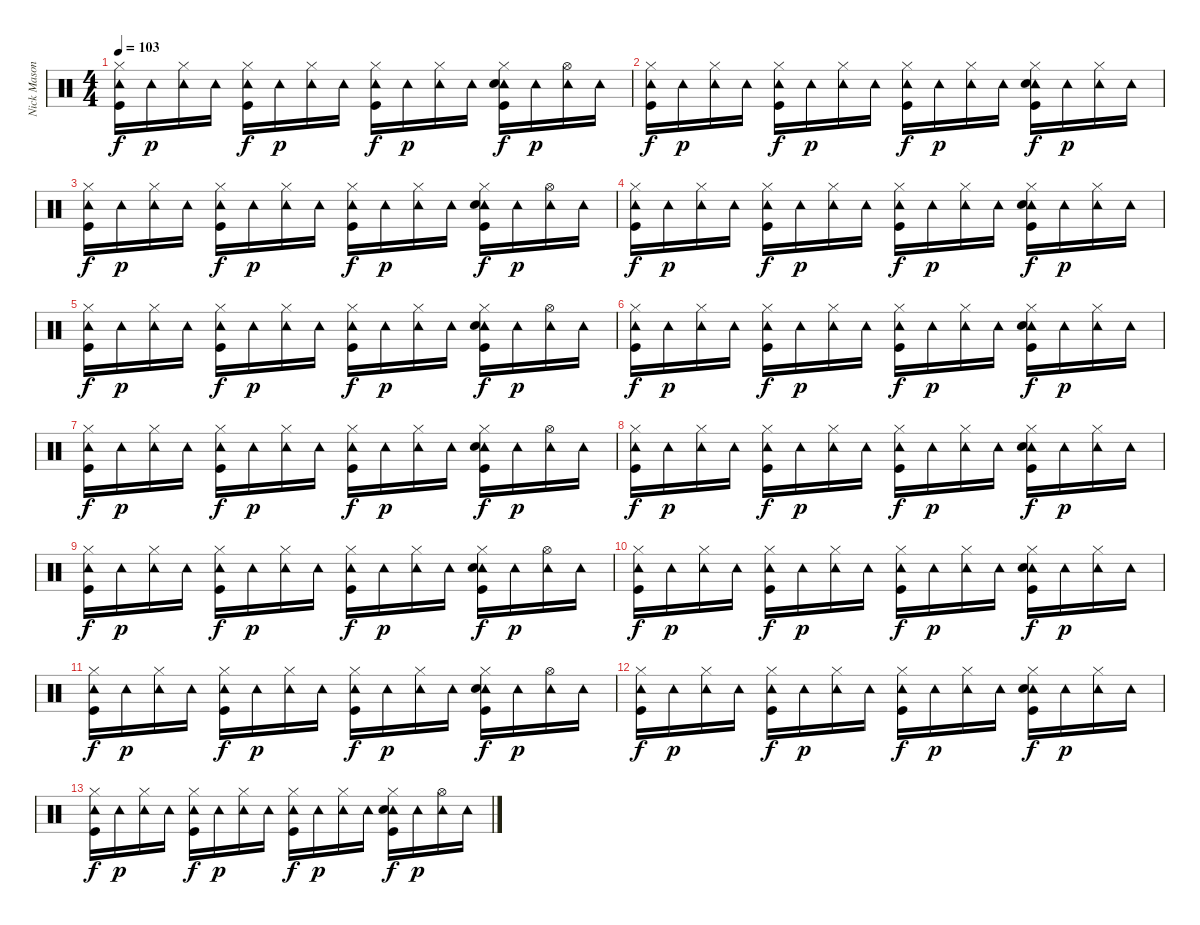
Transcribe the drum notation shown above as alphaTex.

\track ("Nick Mason" "Nick Mason") {instrument percussion}
\staff {score}
\articulation defaults
\ts (4 4)
\tempo 103
\clef neutral
\ks c
("Tambourine (hit)" "Kick (hit)" "Hi-Hat (closed)").16{dy f} "Tambourine (hit)".16{dy p} ("Tambourine (hit)" "Hi-Hat (closed)").16 "Tambourine (hit)".16 ("Tambourine (hit)" "Kick (hit)" "Hi-Hat (closed)").16{dy f} "Tambourine (hit)".16{dy p} ("Tambourine (hit)" "Hi-Hat (closed)").16 "Tambourine (hit)".16 ("Tambourine (hit)" "Kick (hit)" "Hi-Hat (closed)").16{dy f} "Tambourine (hit)".16{dy p} ("Tambourine (hit)" "Hi-Hat (closed)").16 "Tambourine (hit)".16 ("Tambourine (hit)" "Kick (hit)" "Snare (hit) 2" "Hi-Hat (closed)").16{dy f} "Tambourine (hit)".16{dy p} ("Tambourine (hit)" "Hi-Hat (open)").16 "Tambourine (hit)".16 |
("Tambourine (hit)" "Kick (hit)" "Hi-Hat (closed)").16{dy f} "Tambourine (hit)".16{dy p} ("Tambourine (hit)" "Hi-Hat (closed)").16 "Tambourine (hit)".16 ("Tambourine (hit)" "Kick (hit)" "Hi-Hat (closed)").16{dy f} "Tambourine (hit)".16{dy p} ("Tambourine (hit)" "Hi-Hat (closed)").16 "Tambourine (hit)".16 ("Tambourine (hit)" "Kick (hit)" "Hi-Hat (closed)").16{dy f} "Tambourine (hit)".16{dy p} ("Tambourine (hit)" "Hi-Hat (closed)").16 "Tambourine (hit)".16 ("Tambourine (hit)" "Kick (hit)" "Snare (hit) 2" "Hi-Hat (closed)").16{dy f} "Tambourine (hit)".16{dy p} ("Tambourine (hit)" "Hi-Hat (closed)").16 "Tambourine (hit)".16 |
("Tambourine (hit)" "Kick (hit)" "Hi-Hat (closed)").16{dy f} "Tambourine (hit)".16{dy p} ("Tambourine (hit)" "Hi-Hat (closed)").16 "Tambourine (hit)".16 ("Tambourine (hit)" "Kick (hit)" "Hi-Hat (closed)").16{dy f} "Tambourine (hit)".16{dy p} ("Tambourine (hit)" "Hi-Hat (closed)").16 "Tambourine (hit)".16 ("Tambourine (hit)" "Kick (hit)" "Hi-Hat (closed)").16{dy f} "Tambourine (hit)".16{dy p} ("Tambourine (hit)" "Hi-Hat (closed)").16 "Tambourine (hit)".16 ("Tambourine (hit)" "Kick (hit)" "Snare (hit) 2" "Hi-Hat (closed)").16{dy f} "Tambourine (hit)".16{dy p} ("Tambourine (hit)" "Hi-Hat (open)").16 "Tambourine (hit)".16 |
("Tambourine (hit)" "Kick (hit)" "Hi-Hat (closed)").16{dy f} "Tambourine (hit)".16{dy p} ("Tambourine (hit)" "Hi-Hat (closed)").16 "Tambourine (hit)".16 ("Tambourine (hit)" "Kick (hit)" "Hi-Hat (closed)").16{dy f} "Tambourine (hit)".16{dy p} ("Tambourine (hit)" "Hi-Hat (closed)").16 "Tambourine (hit)".16 ("Tambourine (hit)" "Kick (hit)" "Hi-Hat (closed)").16{dy f} "Tambourine (hit)".16{dy p} ("Tambourine (hit)" "Hi-Hat (closed)").16 "Tambourine (hit)".16 ("Tambourine (hit)" "Kick (hit)" "Snare (hit) 2" "Hi-Hat (closed)").16{dy f} "Tambourine (hit)".16{dy p} ("Tambourine (hit)" "Hi-Hat (closed)").16 "Tambourine (hit)".16 |
("Tambourine (hit)" "Kick (hit)" "Hi-Hat (closed)").16{dy f} "Tambourine (hit)".16{dy p} ("Tambourine (hit)" "Hi-Hat (closed)").16 "Tambourine (hit)".16 ("Tambourine (hit)" "Kick (hit)" "Hi-Hat (closed)").16{dy f} "Tambourine (hit)".16{dy p} ("Tambourine (hit)" "Hi-Hat (closed)").16 "Tambourine (hit)".16 ("Tambourine (hit)" "Kick (hit)" "Hi-Hat (closed)").16{dy f} "Tambourine (hit)".16{dy p} ("Tambourine (hit)" "Hi-Hat (closed)").16 "Tambourine (hit)".16 ("Tambourine (hit)" "Kick (hit)" "Snare (hit) 2" "Hi-Hat (closed)").16{dy f} "Tambourine (hit)".16{dy p} ("Tambourine (hit)" "Hi-Hat (open)").16 "Tambourine (hit)".16 |
("Tambourine (hit)" "Kick (hit)" "Hi-Hat (closed)").16{dy f} "Tambourine (hit)".16{dy p} ("Tambourine (hit)" "Hi-Hat (closed)").16 "Tambourine (hit)".16 ("Tambourine (hit)" "Kick (hit)" "Hi-Hat (closed)").16{dy f} "Tambourine (hit)".16{dy p} ("Tambourine (hit)" "Hi-Hat (closed)").16 "Tambourine (hit)".16 ("Tambourine (hit)" "Kick (hit)" "Hi-Hat (closed)").16{dy f} "Tambourine (hit)".16{dy p} ("Tambourine (hit)" "Hi-Hat (closed)").16 "Tambourine (hit)".16 ("Tambourine (hit)" "Kick (hit)" "Snare (hit) 2" "Hi-Hat (closed)").16{dy f} "Tambourine (hit)".16{dy p} ("Tambourine (hit)" "Hi-Hat (closed)").16 "Tambourine (hit)".16 |
("Tambourine (hit)" "Kick (hit)" "Hi-Hat (closed)").16{dy f} "Tambourine (hit)".16{dy p} ("Tambourine (hit)" "Hi-Hat (closed)").16 "Tambourine (hit)".16 ("Tambourine (hit)" "Kick (hit)" "Hi-Hat (closed)").16{dy f} "Tambourine (hit)".16{dy p} ("Tambourine (hit)" "Hi-Hat (closed)").16 "Tambourine (hit)".16 ("Tambourine (hit)" "Kick (hit)" "Hi-Hat (closed)").16{dy f} "Tambourine (hit)".16{dy p} ("Tambourine (hit)" "Hi-Hat (closed)").16 "Tambourine (hit)".16 ("Tambourine (hit)" "Kick (hit)" "Snare (hit) 2" "Hi-Hat (closed)").16{dy f} "Tambourine (hit)".16{dy p} ("Tambourine (hit)" "Hi-Hat (open)").16 "Tambourine (hit)".16 |
("Tambourine (hit)" "Kick (hit)" "Hi-Hat (closed)").16{dy f} "Tambourine (hit)".16{dy p} ("Tambourine (hit)" "Hi-Hat (closed)").16 "Tambourine (hit)".16 ("Tambourine (hit)" "Kick (hit)" "Hi-Hat (closed)").16{dy f} "Tambourine (hit)".16{dy p} ("Tambourine (hit)" "Hi-Hat (closed)").16 "Tambourine (hit)".16 ("Tambourine (hit)" "Kick (hit)" "Hi-Hat (closed)").16{dy f} "Tambourine (hit)".16{dy p} ("Tambourine (hit)" "Hi-Hat (closed)").16 "Tambourine (hit)".16 ("Tambourine (hit)" "Kick (hit)" "Snare (hit) 2" "Hi-Hat (closed)").16{dy f} "Tambourine (hit)".16{dy p} ("Tambourine (hit)" "Hi-Hat (closed)").16 "Tambourine (hit)".16 |
("Tambourine (hit)" "Kick (hit)" "Hi-Hat (closed)").16{dy f} "Tambourine (hit)".16{dy p} ("Tambourine (hit)" "Hi-Hat (closed)").16 "Tambourine (hit)".16 ("Tambourine (hit)" "Kick (hit)" "Hi-Hat (closed)").16{dy f} "Tambourine (hit)".16{dy p} ("Tambourine (hit)" "Hi-Hat (closed)").16 "Tambourine (hit)".16 ("Tambourine (hit)" "Kick (hit)" "Hi-Hat (closed)").16{dy f} "Tambourine (hit)".16{dy p} ("Tambourine (hit)" "Hi-Hat (closed)").16 "Tambourine (hit)".16 ("Tambourine (hit)" "Kick (hit)" "Snare (hit) 2" "Hi-Hat (closed)").16{dy f} "Tambourine (hit)".16{dy p} ("Tambourine (hit)" "Hi-Hat (open)").16 "Tambourine (hit)".16 |
("Tambourine (hit)" "Kick (hit)" "Hi-Hat (closed)").16{dy f} "Tambourine (hit)".16{dy p} ("Tambourine (hit)" "Hi-Hat (closed)").16 "Tambourine (hit)".16 ("Tambourine (hit)" "Kick (hit)" "Hi-Hat (closed)").16{dy f} "Tambourine (hit)".16{dy p} ("Tambourine (hit)" "Hi-Hat (closed)").16 "Tambourine (hit)".16 ("Tambourine (hit)" "Kick (hit)" "Hi-Hat (closed)").16{dy f} "Tambourine (hit)".16{dy p} ("Tambourine (hit)" "Hi-Hat (closed)").16 "Tambourine (hit)".16 ("Tambourine (hit)" "Kick (hit)" "Snare (hit) 2" "Hi-Hat (closed)").16{dy f} "Tambourine (hit)".16{dy p} ("Tambourine (hit)" "Hi-Hat (closed)").16 "Tambourine (hit)".16 |
("Tambourine (hit)" "Kick (hit)" "Hi-Hat (closed)").16{dy f} "Tambourine (hit)".16{dy p} ("Tambourine (hit)" "Hi-Hat (closed)").16 "Tambourine (hit)".16 ("Tambourine (hit)" "Kick (hit)" "Hi-Hat (closed)").16{dy f} "Tambourine (hit)".16{dy p} ("Tambourine (hit)" "Hi-Hat (closed)").16 "Tambourine (hit)".16 ("Tambourine (hit)" "Kick (hit)" "Hi-Hat (closed)").16{dy f} "Tambourine (hit)".16{dy p} ("Tambourine (hit)" "Hi-Hat (closed)").16 "Tambourine (hit)".16 ("Tambourine (hit)" "Kick (hit)" "Snare (hit) 2" "Hi-Hat (closed)").16{dy f} "Tambourine (hit)".16{dy p} ("Tambourine (hit)" "Hi-Hat (open)").16 "Tambourine (hit)".16 |
("Tambourine (hit)" "Kick (hit)" "Hi-Hat (closed)").16{dy f} "Tambourine (hit)".16{dy p} ("Tambourine (hit)" "Hi-Hat (closed)").16 "Tambourine (hit)".16 ("Tambourine (hit)" "Kick (hit)" "Hi-Hat (closed)").16{dy f} "Tambourine (hit)".16{dy p} ("Tambourine (hit)" "Hi-Hat (closed)").16 "Tambourine (hit)".16 ("Tambourine (hit)" "Kick (hit)" "Hi-Hat (closed)").16{dy f} "Tambourine (hit)".16{dy p} ("Tambourine (hit)" "Hi-Hat (closed)").16 "Tambourine (hit)".16 ("Tambourine (hit)" "Kick (hit)" "Snare (hit) 2" "Hi-Hat (closed)").16{dy f} "Tambourine (hit)".16{dy p} ("Tambourine (hit)" "Hi-Hat (closed)").16 "Tambourine (hit)".16 |
("Tambourine (hit)" "Kick (hit)" "Hi-Hat (closed)").16{dy f} "Tambourine (hit)".16{dy p} ("Tambourine (hit)" "Hi-Hat (closed)").16 "Tambourine (hit)".16 ("Tambourine (hit)" "Kick (hit)" "Hi-Hat (closed)").16{dy f} "Tambourine (hit)".16{dy p} ("Tambourine (hit)" "Hi-Hat (closed)").16 "Tambourine (hit)".16 ("Tambourine (hit)" "Kick (hit)" "Hi-Hat (closed)").16{dy f} "Tambourine (hit)".16{dy p} ("Tambourine (hit)" "Hi-Hat (closed)").16 "Tambourine (hit)".16 ("Tambourine (hit)" "Kick (hit)" "Snare (hit) 2" "Hi-Hat (closed)").16{dy f} "Tambourine (hit)".16{dy p} ("Tambourine (hit)" "Hi-Hat (open)").16 "Tambourine (hit)".16
